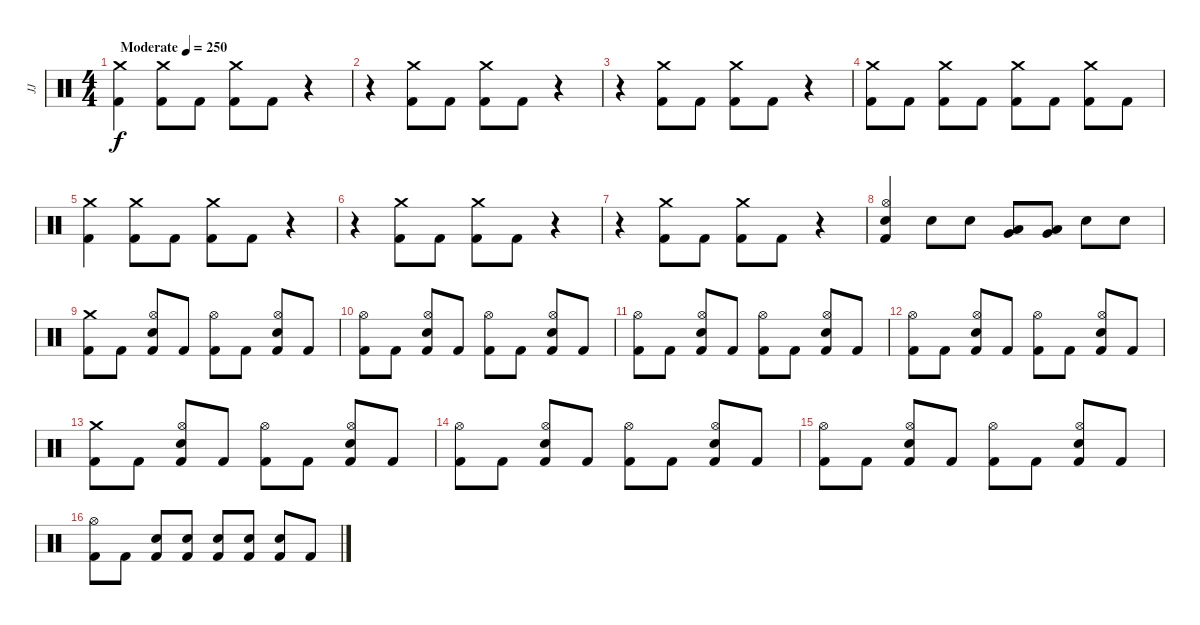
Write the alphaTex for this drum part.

\track ("JJ" "JJ") {instrument percussion}
\staff {score}
\articulation defaults
\ts (4 4)
\tempo (250 "Moderate")
\clef neutral
\ks c
("Crash medium (hit)" "Kick (hit) 2").4{dy f} ("Crash medium (hit)" "Kick (hit) 2").8 "Kick (hit) 2".8 ("Crash medium (hit)" "Kick (hit) 2").8 "Kick (hit) 2".8 r.4 |
r.4 ("Crash medium (hit)" "Kick (hit) 2").8 "Kick (hit) 2".8 ("Crash medium (hit)" "Kick (hit) 2").8 "Kick (hit) 2".8 r.4 |
r.4 ("Crash medium (hit)" "Kick (hit) 2").8 "Kick (hit) 2".8 ("Crash medium (hit)" "Kick (hit) 2").8 "Kick (hit) 2".8 r.4 |
("Crash medium (hit)" "Kick (hit) 2").8 "Kick (hit) 2".8 ("Crash medium (hit)" "Kick (hit) 2").8 "Kick (hit) 2".8 ("Crash medium (hit)" "Kick (hit) 2").8 "Kick (hit) 2".8 ("Crash medium (hit)" "Kick (hit) 2").8 "Kick (hit) 2".8 |
("Crash medium (hit)" "Kick (hit) 2").4 ("Crash medium (hit)" "Kick (hit) 2").8 "Kick (hit) 2".8 ("Crash medium (hit)" "Kick (hit) 2").8 "Kick (hit) 2".8 r.4 |
r.4 ("Crash medium (hit)" "Kick (hit) 2").8 "Kick (hit) 2".8 ("Crash medium (hit)" "Kick (hit) 2").8 "Kick (hit) 2".8 r.4 |
r.4 ("Crash medium (hit)" "Kick (hit) 2").8 "Kick (hit) 2".8 ("Crash medium (hit)" "Kick (hit) 2").8 "Kick (hit) 2".8 r.4 |
("Hi-Hat (open)" "Electric Snare (hit)" "Kick (hit) 2").4 "Electric Snare (hit)".8 "Electric Snare (hit)".8 ("Very Low Tom (hit)" "Low Floor Tom (hit)").8 ("Very Low Tom (hit)" "Low Floor Tom (hit)").8 "Electric Snare (hit)".8 "Electric Snare (hit)".8 |
("Crash medium (hit)" "Kick (hit) 2").8 "Kick (hit) 2".8 ("Hi-Hat (open)" "Electric Snare (hit)" "Kick (hit) 2").8 "Kick (hit) 2".8 ("Hi-Hat (open)" "Kick (hit) 2").8 "Kick (hit) 2".8 ("Hi-Hat (open)" "Electric Snare (hit)" "Kick (hit) 2").8 "Kick (hit) 2".8 |
("Hi-Hat (open)" "Kick (hit) 2").8 "Kick (hit) 2".8 ("Hi-Hat (open)" "Electric Snare (hit)" "Kick (hit) 2").8 "Kick (hit) 2".8 ("Hi-Hat (open)" "Kick (hit) 2").8 "Kick (hit) 2".8 ("Hi-Hat (open)" "Electric Snare (hit)" "Kick (hit) 2").8 "Kick (hit) 2".8 |
("Hi-Hat (open)" "Kick (hit) 2").8 "Kick (hit) 2".8 ("Hi-Hat (open)" "Electric Snare (hit)" "Kick (hit) 2").8 "Kick (hit) 2".8 ("Hi-Hat (open)" "Kick (hit) 2").8 "Kick (hit) 2".8 ("Hi-Hat (open)" "Electric Snare (hit)" "Kick (hit) 2").8 "Kick (hit) 2".8 |
("Hi-Hat (open)" "Kick (hit) 2").8 "Kick (hit) 2".8 ("Hi-Hat (open)" "Electric Snare (hit)" "Kick (hit) 2").8 "Kick (hit) 2".8 ("Hi-Hat (open)" "Kick (hit) 2").8 "Kick (hit) 2".8 ("Hi-Hat (open)" "Electric Snare (hit)" "Kick (hit) 2").8 "Kick (hit) 2".8 |
("Crash medium (hit)" "Kick (hit) 2").8 "Kick (hit) 2".8 ("Hi-Hat (open)" "Electric Snare (hit)" "Kick (hit) 2").8 "Kick (hit) 2".8 ("Hi-Hat (open)" "Kick (hit) 2").8 "Kick (hit) 2".8 ("Hi-Hat (open)" "Electric Snare (hit)" "Kick (hit) 2").8 "Kick (hit) 2".8 |
("Hi-Hat (open)" "Kick (hit) 2").8 "Kick (hit) 2".8 ("Hi-Hat (open)" "Electric Snare (hit)" "Kick (hit) 2").8 "Kick (hit) 2".8 ("Hi-Hat (open)" "Kick (hit) 2").8 "Kick (hit) 2".8 ("Hi-Hat (open)" "Electric Snare (hit)" "Kick (hit) 2").8 "Kick (hit) 2".8 |
("Hi-Hat (open)" "Kick (hit) 2").8 "Kick (hit) 2".8 ("Hi-Hat (open)" "Electric Snare (hit)" "Kick (hit) 2").8 "Kick (hit) 2".8 ("Hi-Hat (open)" "Kick (hit) 2").8 "Kick (hit) 2".8 ("Hi-Hat (open)" "Electric Snare (hit)" "Kick (hit) 2").8 "Kick (hit) 2".8 |
("Hi-Hat (open)" "Kick (hit) 2").8 "Kick (hit) 2".8 ("Electric Snare (hit)" "Kick (hit) 2").8 ("Electric Snare (hit)" "Kick (hit) 2").8 ("Electric Snare (hit)" "Kick (hit) 2").8 ("Electric Snare (hit)" "Kick (hit) 2").8 ("Electric Snare (hit)" "Kick (hit) 2").8 "Kick (hit) 2".8
